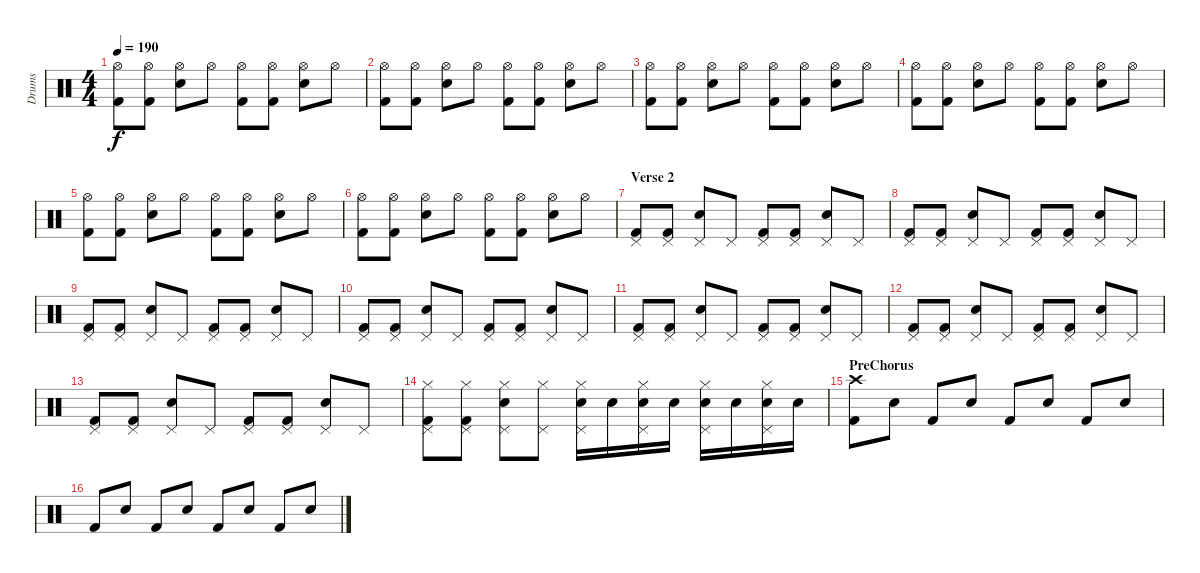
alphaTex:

\track ("Drums" "Drums") {instrument percussion}
\staff {score}
\articulation defaults
\ts (4 4)
\tempo 190
\clef neutral
\ks c
("Hi-Hat (open)" "Kick (hit) 2").8{dy f} ("Hi-Hat (open)" "Kick (hit) 2").8 ("Hi-Hat (open)" "Snare (hit) 2").8 "Hi-Hat (open)".8 ("Hi-Hat (open)" "Kick (hit) 2").8 ("Hi-Hat (open)" "Kick (hit) 2").8 ("Hi-Hat (open)" "Snare (hit) 2").8 "Hi-Hat (open)".8 |
("Hi-Hat (open)" "Kick (hit) 2").8 ("Hi-Hat (open)" "Kick (hit) 2").8 ("Hi-Hat (open)" "Snare (hit) 2").8 "Hi-Hat (open)".8 ("Hi-Hat (open)" "Kick (hit) 2").8 ("Hi-Hat (open)" "Kick (hit) 2").8 ("Hi-Hat (open)" "Snare (hit) 2").8 "Hi-Hat (open)".8 |
("Hi-Hat (open)" "Kick (hit) 2").8 ("Hi-Hat (open)" "Kick (hit) 2").8 ("Hi-Hat (open)" "Snare (hit) 2").8 "Hi-Hat (open)".8 ("Hi-Hat (open)" "Kick (hit) 2").8 ("Hi-Hat (open)" "Kick (hit) 2").8 ("Hi-Hat (open)" "Snare (hit) 2").8 "Hi-Hat (open)".8 |
("Hi-Hat (open)" "Kick (hit) 2").8 ("Hi-Hat (open)" "Kick (hit) 2").8 ("Hi-Hat (open)" "Snare (hit) 2").8 "Hi-Hat (open)".8 ("Hi-Hat (open)" "Kick (hit) 2").8 ("Hi-Hat (open)" "Kick (hit) 2").8 ("Hi-Hat (open)" "Snare (hit) 2").8 "Hi-Hat (open)".8 |
("Hi-Hat (open)" "Kick (hit) 2").8 ("Hi-Hat (open)" "Kick (hit) 2").8 ("Hi-Hat (open)" "Snare (hit) 2").8 "Hi-Hat (open)".8 ("Hi-Hat (open)" "Kick (hit) 2").8 ("Hi-Hat (open)" "Kick (hit) 2").8 ("Hi-Hat (open)" "Snare (hit) 2").8 "Hi-Hat (open)".8 |
("Hi-Hat (open)" "Kick (hit) 2").8 ("Hi-Hat (open)" "Kick (hit) 2").8 ("Hi-Hat (open)" "Snare (hit) 2").8 "Hi-Hat (open)".8 ("Hi-Hat (open)" "Kick (hit) 2").8 ("Hi-Hat (open)" "Kick (hit) 2").8 ("Hi-Hat (open)" "Snare (hit) 2").8 "Hi-Hat (open)".8 |
\section ("" "Verse 2")
("Pedal Hi-Hat (hit)" "Kick (hit) 2").8 ("Pedal Hi-Hat (hit)" "Kick (hit) 2").8 ("Pedal Hi-Hat (hit)" "Snare (hit) 2").8 "Pedal Hi-Hat (hit)".8 ("Pedal Hi-Hat (hit)" "Kick (hit) 2").8 ("Pedal Hi-Hat (hit)" "Kick (hit) 2").8 ("Pedal Hi-Hat (hit)" "Snare (hit) 2").8 "Pedal Hi-Hat (hit)".8 |
("Pedal Hi-Hat (hit)" "Kick (hit) 2").8 ("Pedal Hi-Hat (hit)" "Kick (hit) 2").8 ("Pedal Hi-Hat (hit)" "Snare (hit) 2").8 "Pedal Hi-Hat (hit)".8 ("Pedal Hi-Hat (hit)" "Kick (hit) 2").8 ("Pedal Hi-Hat (hit)" "Kick (hit) 2").8 ("Pedal Hi-Hat (hit)" "Snare (hit) 2").8 "Pedal Hi-Hat (hit)".8 |
("Pedal Hi-Hat (hit)" "Kick (hit) 2").8 ("Pedal Hi-Hat (hit)" "Kick (hit) 2").8 ("Pedal Hi-Hat (hit)" "Snare (hit) 2").8 "Pedal Hi-Hat (hit)".8 ("Pedal Hi-Hat (hit)" "Kick (hit) 2").8 ("Pedal Hi-Hat (hit)" "Kick (hit) 2").8 ("Pedal Hi-Hat (hit)" "Snare (hit) 2").8 "Pedal Hi-Hat (hit)".8 |
("Pedal Hi-Hat (hit)" "Kick (hit) 2").8 ("Pedal Hi-Hat (hit)" "Kick (hit) 2").8 ("Pedal Hi-Hat (hit)" "Snare (hit) 2").8 "Pedal Hi-Hat (hit)".8 ("Pedal Hi-Hat (hit)" "Kick (hit) 2").8 ("Pedal Hi-Hat (hit)" "Kick (hit) 2").8 ("Pedal Hi-Hat (hit)" "Snare (hit) 2").8 "Pedal Hi-Hat (hit)".8 |
("Pedal Hi-Hat (hit)" "Kick (hit) 2").8 ("Pedal Hi-Hat (hit)" "Kick (hit) 2").8 ("Pedal Hi-Hat (hit)" "Snare (hit) 2").8 "Pedal Hi-Hat (hit)".8 ("Pedal Hi-Hat (hit)" "Kick (hit) 2").8 ("Pedal Hi-Hat (hit)" "Kick (hit) 2").8 ("Pedal Hi-Hat (hit)" "Snare (hit) 2").8 "Pedal Hi-Hat (hit)".8 |
("Pedal Hi-Hat (hit)" "Kick (hit) 2").8 ("Pedal Hi-Hat (hit)" "Kick (hit) 2").8 ("Pedal Hi-Hat (hit)" "Snare (hit) 2").8 "Pedal Hi-Hat (hit)".8 ("Pedal Hi-Hat (hit)" "Kick (hit) 2").8 ("Pedal Hi-Hat (hit)" "Kick (hit) 2").8 ("Pedal Hi-Hat (hit)" "Snare (hit) 2").8 "Pedal Hi-Hat (hit)".8 |
("Pedal Hi-Hat (hit)" "Kick (hit) 2").8 ("Pedal Hi-Hat (hit)" "Kick (hit) 2").8 ("Pedal Hi-Hat (hit)" "Snare (hit) 2").8 "Pedal Hi-Hat (hit)".8 ("Pedal Hi-Hat (hit)" "Kick (hit) 2").8 ("Pedal Hi-Hat (hit)" "Kick (hit) 2").8 ("Pedal Hi-Hat (hit)" "Snare (hit) 2").8 "Pedal Hi-Hat (hit)".8 |
("Pedal Hi-Hat (hit)" "Hi-Hat (closed)" "Kick (hit) 2").8 ("Pedal Hi-Hat (hit)" "Hi-Hat (closed)" "Kick (hit) 2").8 ("Pedal Hi-Hat (hit)" "Hi-Hat (closed)" "Snare (hit) 2").8 ("Pedal Hi-Hat (hit)" "Hi-Hat (closed)").8 ("Pedal Hi-Hat (hit)" "Hi-Hat (closed)" "Snare (hit) 2").16 "Snare (hit) 2".16 ("Pedal Hi-Hat (hit)" "Hi-Hat (closed)" "Snare (hit) 2").16 "Snare (hit) 2".16 ("Pedal Hi-Hat (hit)" "Hi-Hat (closed)" "Snare (hit) 2").16 "Snare (hit) 2".16 ("Pedal Hi-Hat (hit)" "Hi-Hat (closed)" "Snare (hit) 2").16 "Snare (hit) 2".16 |
\section ("" "PreChorus")
("Crash high (hit)" "Kick (hit) 2").8 "Snare (hit) 2".8 "Kick (hit) 2".8 "Snare (hit) 2".8 "Kick (hit) 2".8 "Snare (hit) 2".8 "Kick (hit) 2".8 "Snare (hit) 2".8 |
"Kick (hit) 2".8 "Snare (hit) 2".8 "Kick (hit) 2".8 "Snare (hit) 2".8 "Kick (hit) 2".8 "Snare (hit) 2".8 "Kick (hit) 2".8 "Snare (hit) 2".8
